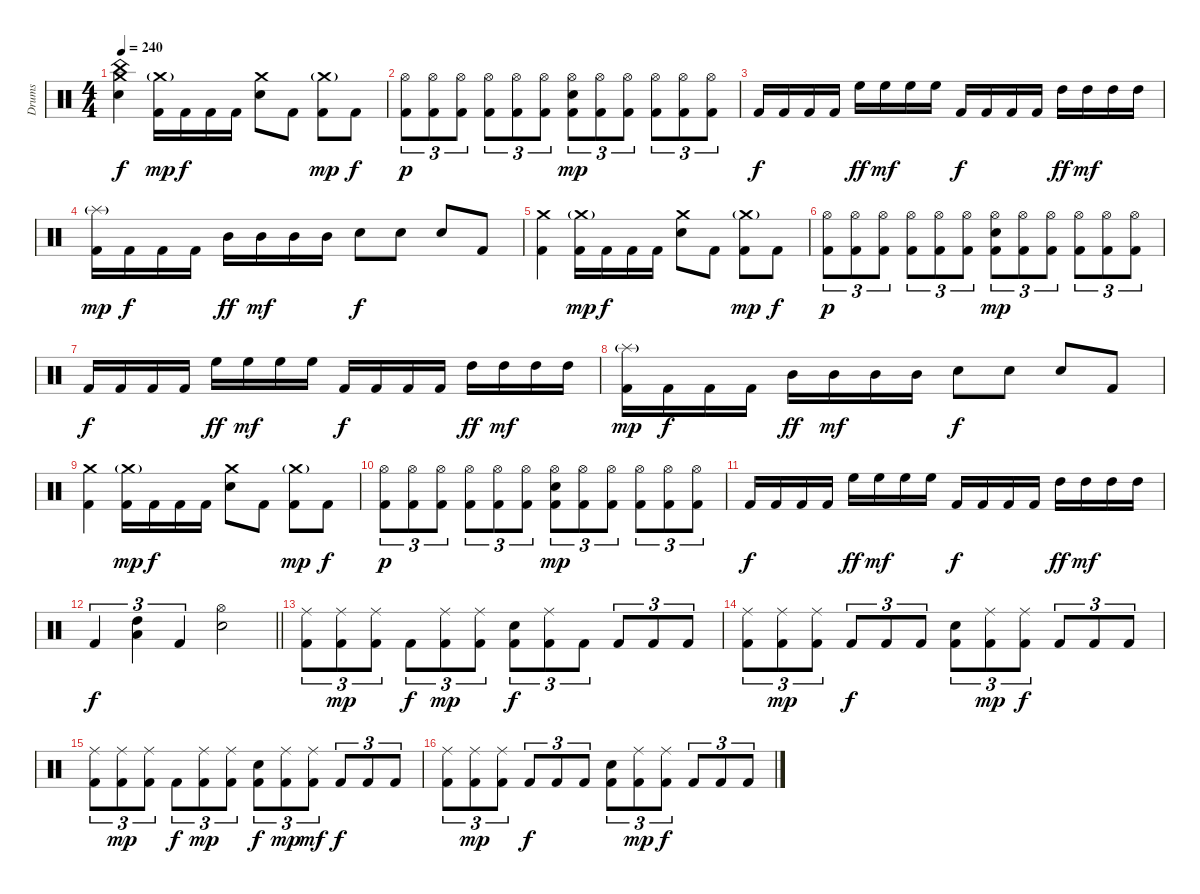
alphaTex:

\track ("Drums" "Drums") {instrument percussion}
\staff {score}
\articulation defaults
\ts (4 4)
\tempo 240
\clef neutral
\ks c
("China (hit)" "Crash medium (hit)" "Electric Snare (hit)").4{dy f} ("Crash medium (hit)"{g} "Kick (hit) 2").16{dy mp} "Kick (hit) 2".16{dy f} "Kick (hit) 2".16 "Kick (hit) 2".16 ("Crash medium (hit)" "Electric Snare (hit)").8 "Kick (hit) 2".8 ("Crash medium (hit)"{g} "Kick (hit) 2").8{dy mp} "Kick (hit) 2".8{dy f} |
("Hi-Hat (open)" "Kick (hit) 2").8{tu (3 2) dy p} ("Hi-Hat (open)" "Kick (hit) 2").8{tu (3 2)} ("Hi-Hat (open)" "Kick (hit) 2").8{tu (3 2)} ("Hi-Hat (open)" "Kick (hit) 2").8{tu (3 2)} ("Hi-Hat (open)" "Kick (hit) 2").8{tu (3 2)} ("Hi-Hat (open)" "Kick (hit) 2").8{tu (3 2)} ("Hi-Hat (open)" "Electric Snare (hit)" "Kick (hit) 2").8{tu (3 2) dy mp} ("Hi-Hat (open)" "Kick (hit) 2").8{tu (3 2)} ("Hi-Hat (open)" "Kick (hit) 2").8{tu (3 2)} ("Hi-Hat (open)" "Kick (hit) 2").8{tu (3 2)} ("Hi-Hat (open)" "Kick (hit) 2").8{tu (3 2)} ("Hi-Hat (open)" "Kick (hit) 2").8{tu (3 2)} |
"Kick (hit) 2".16{dy f} "Kick (hit) 2".16 "Kick (hit) 2".16 "Kick (hit) 2".16 "High Floor Tom (hit)".16{dy ff} "High Floor Tom (hit)".16{dy mf} "High Floor Tom (hit)".16 "High Floor Tom (hit)".16 "Kick (hit) 2".16{dy f} "Kick (hit) 2".16 "Kick (hit) 2".16 "Kick (hit) 2".16 "High Tom (hit)".16{dy ff} "High Tom (hit)".16{dy mf} "High Tom (hit)".16 "High Tom (hit)".16 |
("Splash (hit)"{g} "Kick (hit) 2").16{dy mp} "Kick (hit) 2".16{dy f} "Kick (hit) 2".16 "Kick (hit) 2".16 "Mid Tom (hit)".16{dy ff} "Mid Tom (hit)".16{dy mf} "Mid Tom (hit)".16 "Mid Tom (hit)".16 "Electric Snare (hit)".8{dy f} "Electric Snare (hit)".8 "Electric Snare (hit)".8 "Kick (hit) 2".8 |
("Crash medium (hit)" "Kick (hit) 2").4 ("Crash medium (hit)"{g} "Kick (hit) 2").16{dy mp} "Kick (hit) 2".16{dy f} "Kick (hit) 2".16 "Kick (hit) 2".16 ("Crash medium (hit)" "Electric Snare (hit)").8 "Kick (hit) 2".8 ("Crash medium (hit)"{g} "Kick (hit) 2").8{dy mp} "Kick (hit) 2".8{dy f} |
("Hi-Hat (open)" "Kick (hit) 2").8{tu (3 2) dy p} ("Hi-Hat (open)" "Kick (hit) 2").8{tu (3 2)} ("Hi-Hat (open)" "Kick (hit) 2").8{tu (3 2)} ("Hi-Hat (open)" "Kick (hit) 2").8{tu (3 2)} ("Hi-Hat (open)" "Kick (hit) 2").8{tu (3 2)} ("Hi-Hat (open)" "Kick (hit) 2").8{tu (3 2)} ("Hi-Hat (open)" "Electric Snare (hit)" "Kick (hit) 2").8{tu (3 2) dy mp} ("Hi-Hat (open)" "Kick (hit) 2").8{tu (3 2)} ("Hi-Hat (open)" "Kick (hit) 2").8{tu (3 2)} ("Hi-Hat (open)" "Kick (hit) 2").8{tu (3 2)} ("Hi-Hat (open)" "Kick (hit) 2").8{tu (3 2)} ("Hi-Hat (open)" "Kick (hit) 2").8{tu (3 2)} |
"Kick (hit) 2".16{dy f} "Kick (hit) 2".16 "Kick (hit) 2".16 "Kick (hit) 2".16 "High Floor Tom (hit)".16{dy ff} "High Floor Tom (hit)".16{dy mf} "High Floor Tom (hit)".16 "High Floor Tom (hit)".16 "Kick (hit) 2".16{dy f} "Kick (hit) 2".16 "Kick (hit) 2".16 "Kick (hit) 2".16 "High Tom (hit)".16{dy ff} "High Tom (hit)".16{dy mf} "High Tom (hit)".16 "High Tom (hit)".16 |
("Splash (hit)"{g} "Kick (hit) 2").16{dy mp} "Kick (hit) 2".16{dy f} "Kick (hit) 2".16 "Kick (hit) 2".16 "Mid Tom (hit)".16{dy ff} "Mid Tom (hit)".16{dy mf} "Mid Tom (hit)".16 "Mid Tom (hit)".16 "Electric Snare (hit)".8{dy f} "Electric Snare (hit)".8 "Electric Snare (hit)".8 "Kick (hit) 2".8 |
("Crash medium (hit)" "Kick (hit) 2").4 ("Crash medium (hit)"{g} "Kick (hit) 2").16{dy mp} "Kick (hit) 2".16{dy f} "Kick (hit) 2".16 "Kick (hit) 2".16 ("Crash medium (hit)" "Electric Snare (hit)").8 "Kick (hit) 2".8 ("Crash medium (hit)"{g} "Kick (hit) 2").8{dy mp} "Kick (hit) 2".8{dy f} |
("Hi-Hat (open)" "Kick (hit) 2").8{tu (3 2) dy p} ("Hi-Hat (open)" "Kick (hit) 2").8{tu (3 2)} ("Hi-Hat (open)" "Kick (hit) 2").8{tu (3 2)} ("Hi-Hat (open)" "Kick (hit) 2").8{tu (3 2)} ("Hi-Hat (open)" "Kick (hit) 2").8{tu (3 2)} ("Hi-Hat (open)" "Kick (hit) 2").8{tu (3 2)} ("Hi-Hat (open)" "Electric Snare (hit)" "Kick (hit) 2").8{tu (3 2) dy mp} ("Hi-Hat (open)" "Kick (hit) 2").8{tu (3 2)} ("Hi-Hat (open)" "Kick (hit) 2").8{tu (3 2)} ("Hi-Hat (open)" "Kick (hit) 2").8{tu (3 2)} ("Hi-Hat (open)" "Kick (hit) 2").8{tu (3 2)} ("Hi-Hat (open)" "Kick (hit) 2").8{tu (3 2)} |
"Kick (hit) 2".16{dy f} "Kick (hit) 2".16 "Kick (hit) 2".16 "Kick (hit) 2".16 "High Floor Tom (hit)".16{dy ff} "High Floor Tom (hit)".16{dy mf} "High Floor Tom (hit)".16 "High Floor Tom (hit)".16 "Kick (hit) 2".16{dy f} "Kick (hit) 2".16 "Kick (hit) 2".16 "Kick (hit) 2".16 "High Tom (hit)".16{dy ff} "High Tom (hit)".16{dy mf} "High Tom (hit)".16 "High Tom (hit)".16 |
\barLineRight lightlight "Kick (hit) 2".4{tu (3 2) dy f}
("High Tom (hit)" "Low Tom (hit)").4{tu (3 2)} "Kick (hit) 2".4{tu (3 2)} ("Hi-Hat (open)" "Electric Snare (hit)").2 |
("Ride (middle)" "Kick (hit) 2").8{tu (3 2)} ("Ride (middle)" "Kick (hit) 2").8{tu (3 2) dy mp} ("Ride (middle)" "Kick (hit) 2").8{tu (3 2)} "Kick (hit) 2".8{tu (3 2) dy f} ("Ride (middle)" "Kick (hit) 2").8{tu (3 2) dy mp} ("Ride (middle)" "Kick (hit) 2").8{tu (3 2)} ("Electric Snare (hit)" "Kick (hit) 2").8{tu (3 2) dy f} ("Ride (middle)" "Kick (hit) 2").8{tu (3 2)} "Kick (hit) 2".8{tu (3 2)} "Kick (hit) 2".8{tu (3 2)} "Kick (hit) 2".8{tu (3 2)} "Kick (hit) 2".8{tu (3 2)} |
("Ride (middle)" "Kick (hit) 2").8{tu (3 2)} ("Ride (middle)" "Kick (hit) 2").8{tu (3 2) dy mp} ("Ride (middle)" "Kick (hit) 2").8{tu (3 2)} "Kick (hit) 2".8{tu (3 2) dy f} "Kick (hit) 2".8{tu (3 2)} "Kick (hit) 2".8{tu (3 2)} ("Electric Snare (hit)" "Kick (hit) 2").8{tu (3 2)} ("Ride (middle)" "Kick (hit) 2").8{tu (3 2) dy mp} ("Ride (middle)" "Kick (hit) 2").8{tu (3 2) dy f} "Kick (hit) 2".8{tu (3 2)} "Kick (hit) 2".8{tu (3 2)} "Kick (hit) 2".8{tu (3 2)} |
("Ride (middle)" "Kick (hit) 2").8{tu (3 2)} ("Ride (middle)" "Kick (hit) 2").8{tu (3 2) dy mp} ("Ride (middle)" "Kick (hit) 2").8{tu (3 2)} "Kick (hit) 2".8{tu (3 2) dy f} ("Ride (middle)" "Kick (hit) 2").8{tu (3 2) dy mp} ("Ride (middle)" "Kick (hit) 2").8{tu (3 2)} ("Electric Snare (hit)" "Kick (hit) 2").8{tu (3 2) dy f} ("Ride (middle)" "Kick (hit) 2").8{tu (3 2) dy mp} ("Ride (middle)" "Kick (hit) 2").8{tu (3 2) dy mf} "Kick (hit) 2".8{tu (3 2) dy f} "Kick (hit) 2".8{tu (3 2)} "Kick (hit) 2".8{tu (3 2)} |
("Ride (middle)" "Kick (hit) 2").8{tu (3 2)} ("Ride (middle)" "Kick (hit) 2").8{tu (3 2) dy mp} ("Ride (middle)" "Kick (hit) 2").8{tu (3 2)} "Kick (hit) 2".8{tu (3 2) dy f} "Kick (hit) 2".8{tu (3 2)} "Kick (hit) 2".8{tu (3 2)} ("Electric Snare (hit)" "Kick (hit) 2").8{tu (3 2)} ("Ride (middle)" "Kick (hit) 2").8{tu (3 2) dy mp} ("Ride (middle)" "Kick (hit) 2").8{tu (3 2) dy f} "Kick (hit) 2".8{tu (3 2)} "Kick (hit) 2".8{tu (3 2)} "Kick (hit) 2".8{tu (3 2)}
